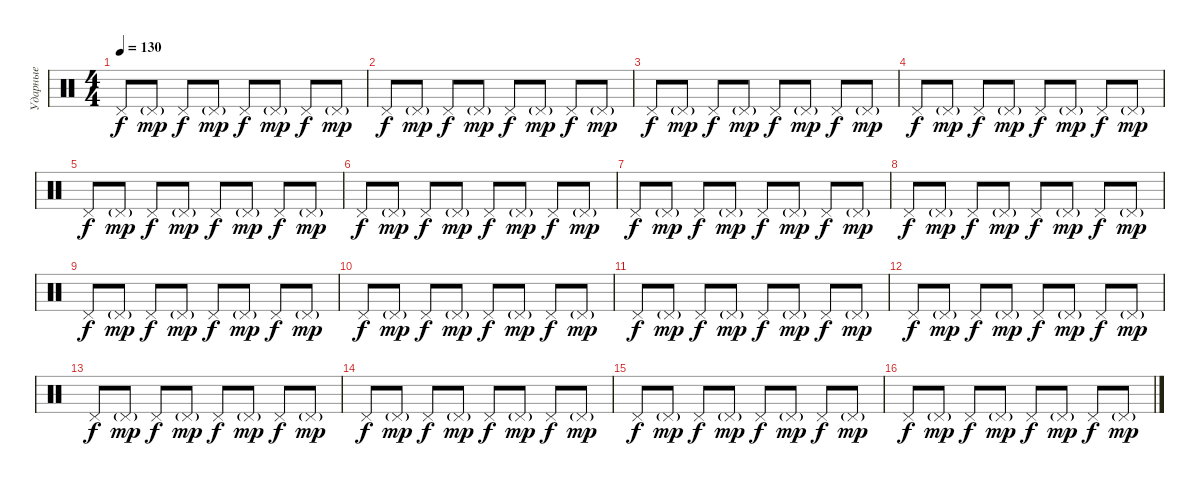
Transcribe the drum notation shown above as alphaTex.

\track ("Ударные" "Ударные") {instrument percussion}
\staff {score}
\articulation defaults
\ts (4 4)
\tempo 130
\clef neutral
\ks c "Pedal Hi-Hat (hit)".8{dy f} "Pedal Hi-Hat (hit)"{g}.8{dy mp} "Pedal Hi-Hat (hit)".8{dy f} "Pedal Hi-Hat (hit)"{g}.8{dy mp} "Pedal Hi-Hat (hit)".8{dy f} "Pedal Hi-Hat (hit)"{g}.8{dy mp} "Pedal Hi-Hat (hit)".8{dy f} "Pedal Hi-Hat (hit)"{g}.8{dy mp}
|
"Pedal Hi-Hat (hit)".8{dy f} "Pedal Hi-Hat (hit)"{g}.8{dy mp} "Pedal Hi-Hat (hit)".8{dy f} "Pedal Hi-Hat (hit)"{g}.8{dy mp} "Pedal Hi-Hat (hit)".8{dy f} "Pedal Hi-Hat (hit)"{g}.8{dy mp} "Pedal Hi-Hat (hit)".8{dy f} "Pedal Hi-Hat (hit)"{g}.8{dy mp} |
"Pedal Hi-Hat (hit)".8{dy f} "Pedal Hi-Hat (hit)"{g}.8{dy mp} "Pedal Hi-Hat (hit)".8{dy f} "Pedal Hi-Hat (hit)"{g}.8{dy mp} "Pedal Hi-Hat (hit)".8{dy f} "Pedal Hi-Hat (hit)"{g}.8{dy mp} "Pedal Hi-Hat (hit)".8{dy f} "Pedal Hi-Hat (hit)"{g}.8{dy mp} |
"Pedal Hi-Hat (hit)".8{dy f} "Pedal Hi-Hat (hit)"{g}.8{dy mp} "Pedal Hi-Hat (hit)".8{dy f} "Pedal Hi-Hat (hit)"{g}.8{dy mp} "Pedal Hi-Hat (hit)".8{dy f} "Pedal Hi-Hat (hit)"{g}.8{dy mp} "Pedal Hi-Hat (hit)".8{dy f} "Pedal Hi-Hat (hit)"{g}.8{dy mp} |
"Pedal Hi-Hat (hit)".8{dy f} "Pedal Hi-Hat (hit)"{g}.8{dy mp} "Pedal Hi-Hat (hit)".8{dy f} "Pedal Hi-Hat (hit)"{g}.8{dy mp} "Pedal Hi-Hat (hit)".8{dy f} "Pedal Hi-Hat (hit)"{g}.8{dy mp} "Pedal Hi-Hat (hit)".8{dy f} "Pedal Hi-Hat (hit)"{g}.8{dy mp} |
"Pedal Hi-Hat (hit)".8{dy f} "Pedal Hi-Hat (hit)"{g}.8{dy mp} "Pedal Hi-Hat (hit)".8{dy f} "Pedal Hi-Hat (hit)"{g}.8{dy mp} "Pedal Hi-Hat (hit)".8{dy f} "Pedal Hi-Hat (hit)"{g}.8{dy mp} "Pedal Hi-Hat (hit)".8{dy f} "Pedal Hi-Hat (hit)"{g}.8{dy mp} |
"Pedal Hi-Hat (hit)".8{dy f} "Pedal Hi-Hat (hit)"{g}.8{dy mp} "Pedal Hi-Hat (hit)".8{dy f} "Pedal Hi-Hat (hit)"{g}.8{dy mp} "Pedal Hi-Hat (hit)".8{dy f} "Pedal Hi-Hat (hit)"{g}.8{dy mp} "Pedal Hi-Hat (hit)".8{dy f} "Pedal Hi-Hat (hit)"{g}.8{dy mp} |
"Pedal Hi-Hat (hit)".8{dy f} "Pedal Hi-Hat (hit)"{g}.8{dy mp} "Pedal Hi-Hat (hit)".8{dy f} "Pedal Hi-Hat (hit)"{g}.8{dy mp} "Pedal Hi-Hat (hit)".8{dy f} "Pedal Hi-Hat (hit)"{g}.8{dy mp} "Pedal Hi-Hat (hit)".8{dy f} "Pedal Hi-Hat (hit)"{g}.8{dy mp} |
"Pedal Hi-Hat (hit)".8{dy f} "Pedal Hi-Hat (hit)"{g}.8{dy mp} "Pedal Hi-Hat (hit)".8{dy f} "Pedal Hi-Hat (hit)"{g}.8{dy mp} "Pedal Hi-Hat (hit)".8{dy f} "Pedal Hi-Hat (hit)"{g}.8{dy mp} "Pedal Hi-Hat (hit)".8{dy f} "Pedal Hi-Hat (hit)"{g}.8{dy mp} |
"Pedal Hi-Hat (hit)".8{dy f} "Pedal Hi-Hat (hit)"{g}.8{dy mp} "Pedal Hi-Hat (hit)".8{dy f} "Pedal Hi-Hat (hit)"{g}.8{dy mp} "Pedal Hi-Hat (hit)".8{dy f} "Pedal Hi-Hat (hit)"{g}.8{dy mp} "Pedal Hi-Hat (hit)".8{dy f} "Pedal Hi-Hat (hit)"{g}.8{dy mp} |
"Pedal Hi-Hat (hit)".8{dy f} "Pedal Hi-Hat (hit)"{g}.8{dy mp} "Pedal Hi-Hat (hit)".8{dy f} "Pedal Hi-Hat (hit)"{g}.8{dy mp} "Pedal Hi-Hat (hit)".8{dy f} "Pedal Hi-Hat (hit)"{g}.8{dy mp} "Pedal Hi-Hat (hit)".8{dy f} "Pedal Hi-Hat (hit)"{g}.8{dy mp} |
"Pedal Hi-Hat (hit)".8{dy f} "Pedal Hi-Hat (hit)"{g}.8{dy mp} "Pedal Hi-Hat (hit)".8{dy f} "Pedal Hi-Hat (hit)"{g}.8{dy mp} "Pedal Hi-Hat (hit)".8{dy f} "Pedal Hi-Hat (hit)"{g}.8{dy mp} "Pedal Hi-Hat (hit)".8{dy f} "Pedal Hi-Hat (hit)"{g}.8{dy mp} |
"Pedal Hi-Hat (hit)".8{dy f} "Pedal Hi-Hat (hit)"{g}.8{dy mp} "Pedal Hi-Hat (hit)".8{dy f} "Pedal Hi-Hat (hit)"{g}.8{dy mp} "Pedal Hi-Hat (hit)".8{dy f} "Pedal Hi-Hat (hit)"{g}.8{dy mp} "Pedal Hi-Hat (hit)".8{dy f} "Pedal Hi-Hat (hit)"{g}.8{dy mp} |
"Pedal Hi-Hat (hit)".8{dy f} "Pedal Hi-Hat (hit)"{g}.8{dy mp} "Pedal Hi-Hat (hit)".8{dy f} "Pedal Hi-Hat (hit)"{g}.8{dy mp} "Pedal Hi-Hat (hit)".8{dy f} "Pedal Hi-Hat (hit)"{g}.8{dy mp} "Pedal Hi-Hat (hit)".8{dy f} "Pedal Hi-Hat (hit)"{g}.8{dy mp} |
"Pedal Hi-Hat (hit)".8{dy f} "Pedal Hi-Hat (hit)"{g}.8{dy mp} "Pedal Hi-Hat (hit)".8{dy f} "Pedal Hi-Hat (hit)"{g}.8{dy mp} "Pedal Hi-Hat (hit)".8{dy f} "Pedal Hi-Hat (hit)"{g}.8{dy mp} "Pedal Hi-Hat (hit)".8{dy f} "Pedal Hi-Hat (hit)"{g}.8{dy mp} |
"Pedal Hi-Hat (hit)".8{dy f} "Pedal Hi-Hat (hit)"{g}.8{dy mp} "Pedal Hi-Hat (hit)".8{dy f} "Pedal Hi-Hat (hit)"{g}.8{dy mp} "Pedal Hi-Hat (hit)".8{dy f} "Pedal Hi-Hat (hit)"{g}.8{dy mp} "Pedal Hi-Hat (hit)".8{dy f} "Pedal Hi-Hat (hit)"{g}.8{dy mp}
